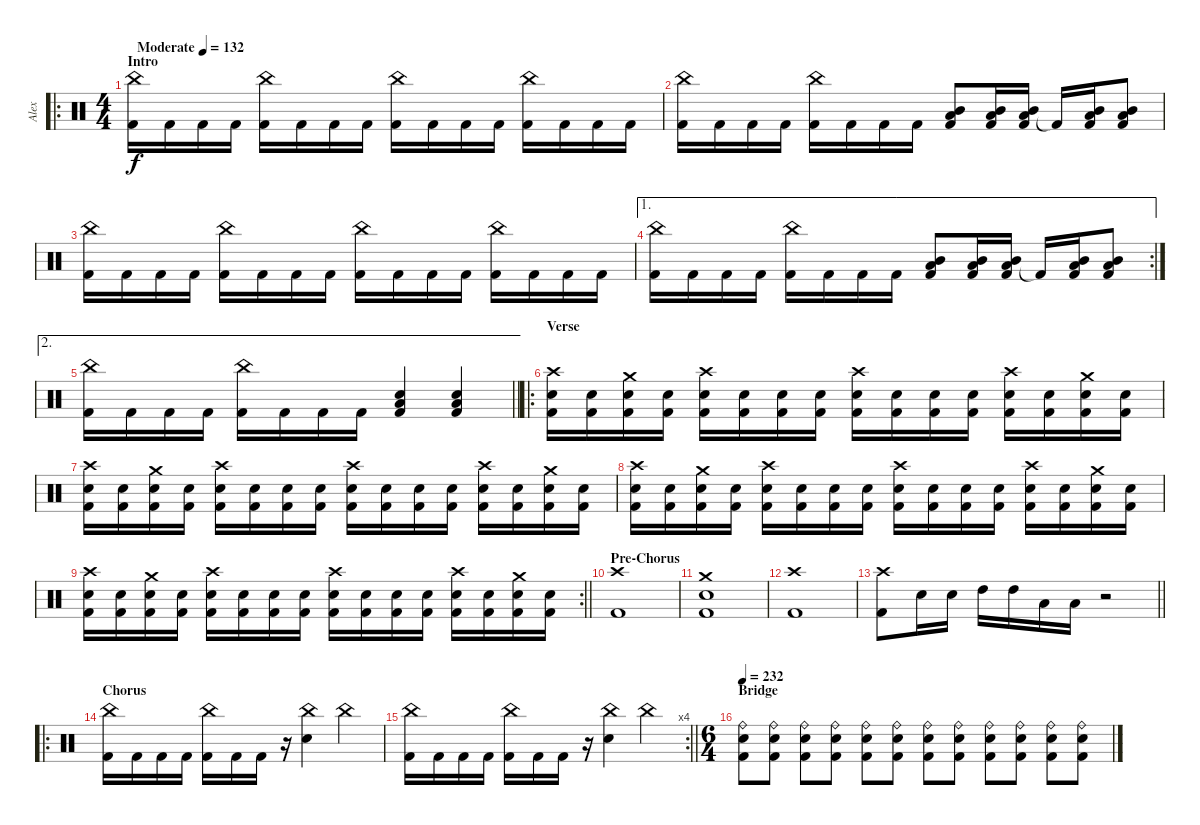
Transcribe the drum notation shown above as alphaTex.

\track ("Alex" "Alex") {instrument percussion}
\staff {score}
\articulation defaults
\ro
\ts (4 4)
\section ("" "Intro")
\tempo (132 "Moderate")
\clef neutral
\ks c
("China (hit)" "Kick (hit) 2").16{dy f} "Kick (hit) 2".16 "Kick (hit) 2".16 "Kick (hit) 2".16 ("China (hit)" "Kick (hit) 2").16 "Kick (hit) 2".16 "Kick (hit) 2".16 "Kick (hit) 2".16 ("China (hit)" "Kick (hit) 2").16 "Kick (hit) 2".16 "Kick (hit) 2".16 "Kick (hit) 2".16 ("China (hit)" "Kick (hit) 2").16 "Kick (hit) 2".16 "Kick (hit) 2".16 "Kick (hit) 2".16 |
("China (hit)" "Kick (hit) 2").16 "Kick (hit) 2".16 "Kick (hit) 2".16 "Kick (hit) 2".16 ("China (hit)" "Kick (hit) 2").16 "Kick (hit) 2".16 "Kick (hit) 2".16 "Kick (hit) 2".16 ("Mid Tom (hit)" "Low Floor Tom (hit)" "Kick (hit) 2").8 ("Mid Tom (hit)" "Low Floor Tom (hit)" "Kick (hit) 2").16 ("Mid Tom (hit)" "Low Floor Tom (hit)" "Kick (hit) 2").16 "Kick (hit) 2"{t}.16 ("Mid Tom (hit)" "Low Floor Tom (hit)" "Kick (hit) 2").16 ("Mid Tom (hit)" "Low Floor Tom (hit)" "Kick (hit) 2").8 |
("China (hit)" "Kick (hit) 2").16 "Kick (hit) 2".16 "Kick (hit) 2".16 "Kick (hit) 2".16 ("China (hit)" "Kick (hit) 2").16 "Kick (hit) 2".16 "Kick (hit) 2".16 "Kick (hit) 2".16 ("China (hit)" "Kick (hit) 2").16 "Kick (hit) 2".16 "Kick (hit) 2".16 "Kick (hit) 2".16 ("China (hit)" "Kick (hit) 2").16 "Kick (hit) 2".16 "Kick (hit) 2".16 "Kick (hit) 2".16 |
\ae 1
\rc 2
("China (hit)" "Kick (hit) 2").16 "Kick (hit) 2".16 "Kick (hit) 2".16 "Kick (hit) 2".16 ("China (hit)" "Kick (hit) 2").16 "Kick (hit) 2".16 "Kick (hit) 2".16 "Kick (hit) 2".16 ("Mid Tom (hit)" "Low Floor Tom (hit)" "Kick (hit) 2").8 ("Mid Tom (hit)" "Low Floor Tom (hit)" "Kick (hit) 2").16 ("Mid Tom (hit)" "Low Floor Tom (hit)" "Kick (hit) 2").16 "Kick (hit) 2"{t}.16 ("Mid Tom (hit)" "Low Floor Tom (hit)" "Kick (hit) 2").16 ("Mid Tom (hit)" "Low Floor Tom (hit)" "Kick (hit) 2").8 |
\ae 2
\barLineRight lightlight
("China (hit)" "Kick (hit) 2").16 "Kick (hit) 2".16 "Kick (hit) 2".16 "Kick (hit) 2".16 ("China (hit)" "Kick (hit) 2").16 "Kick (hit) 2".16 "Kick (hit) 2".16 "Kick (hit) 2".16 ("Electric Snare (hit)" "Low Floor Tom (hit)" "Kick (hit) 2").4 ("Electric Snare (hit)" "Low Floor Tom (hit)" "Kick (hit) 2").4 |
\ro
\section ("" "Verse")
("Crash high (hit)" "Electric Snare (hit)" "Kick (hit) 2").16 ("Electric Snare (hit)" "Kick (hit) 2").16 ("Crash medium (hit)" "Electric Snare (hit)" "Kick (hit) 2").16 ("Electric Snare (hit)" "Kick (hit) 2").16 ("Crash high (hit)" "Electric Snare (hit)" "Kick (hit) 2").16 ("Electric Snare (hit)" "Kick (hit) 2").16 ("Electric Snare (hit)" "Kick (hit) 2").16 ("Electric Snare (hit)" "Kick (hit) 2").16 ("Crash high (hit)" "Electric Snare (hit)" "Kick (hit) 2").16 ("Electric Snare (hit)" "Kick (hit) 2").16 ("Electric Snare (hit)" "Kick (hit) 2").16 ("Electric Snare (hit)" "Kick (hit) 2").16 ("Crash high (hit)" "Electric Snare (hit)" "Kick (hit) 2").16 ("Electric Snare (hit)" "Kick (hit) 2").16 ("Crash medium (hit)" "Electric Snare (hit)" "Kick (hit) 2").16 ("Electric Snare (hit)" "Kick (hit) 2").16 |
("Crash high (hit)" "Electric Snare (hit)" "Kick (hit) 2").16 ("Electric Snare (hit)" "Kick (hit) 2").16 ("Crash medium (hit)" "Electric Snare (hit)" "Kick (hit) 2").16 ("Electric Snare (hit)" "Kick (hit) 2").16 ("Crash high (hit)" "Electric Snare (hit)" "Kick (hit) 2").16 ("Electric Snare (hit)" "Kick (hit) 2").16 ("Electric Snare (hit)" "Kick (hit) 2").16 ("Electric Snare (hit)" "Kick (hit) 2").16 ("Crash high (hit)" "Electric Snare (hit)" "Kick (hit) 2").16 ("Electric Snare (hit)" "Kick (hit) 2").16 ("Electric Snare (hit)" "Kick (hit) 2").16 ("Electric Snare (hit)" "Kick (hit) 2").16 ("Crash high (hit)" "Electric Snare (hit)" "Kick (hit) 2").16 ("Electric Snare (hit)" "Kick (hit) 2").16 ("Crash medium (hit)" "Electric Snare (hit)" "Kick (hit) 2").16 ("Electric Snare (hit)" "Kick (hit) 2").16 |
("Crash high (hit)" "Electric Snare (hit)" "Kick (hit) 2").16 ("Electric Snare (hit)" "Kick (hit) 2").16 ("Crash medium (hit)" "Electric Snare (hit)" "Kick (hit) 2").16 ("Electric Snare (hit)" "Kick (hit) 2").16 ("Crash high (hit)" "Electric Snare (hit)" "Kick (hit) 2").16 ("Electric Snare (hit)" "Kick (hit) 2").16 ("Electric Snare (hit)" "Kick (hit) 2").16 ("Electric Snare (hit)" "Kick (hit) 2").16 ("Crash high (hit)" "Electric Snare (hit)" "Kick (hit) 2").16 ("Electric Snare (hit)" "Kick (hit) 2").16 ("Electric Snare (hit)" "Kick (hit) 2").16 ("Electric Snare (hit)" "Kick (hit) 2").16 ("Crash high (hit)" "Electric Snare (hit)" "Kick (hit) 2").16 ("Electric Snare (hit)" "Kick (hit) 2").16 ("Crash medium (hit)" "Electric Snare (hit)" "Kick (hit) 2").16 ("Electric Snare (hit)" "Kick (hit) 2").16 |
\rc 2
\barLineRight lightlight
("Crash high (hit)" "Electric Snare (hit)" "Kick (hit) 2").16 ("Electric Snare (hit)" "Kick (hit) 2").16 ("Crash medium (hit)" "Electric Snare (hit)" "Kick (hit) 2").16 ("Electric Snare (hit)" "Kick (hit) 2").16 ("Crash high (hit)" "Electric Snare (hit)" "Kick (hit) 2").16 ("Electric Snare (hit)" "Kick (hit) 2").16 ("Electric Snare (hit)" "Kick (hit) 2").16 ("Electric Snare (hit)" "Kick (hit) 2").16 ("Crash high (hit)" "Electric Snare (hit)" "Kick (hit) 2").16 ("Electric Snare (hit)" "Kick (hit) 2").16 ("Electric Snare (hit)" "Kick (hit) 2").16 ("Electric Snare (hit)" "Kick (hit) 2").16 ("Crash high (hit)" "Electric Snare (hit)" "Kick (hit) 2").16 ("Electric Snare (hit)" "Kick (hit) 2").16 ("Crash medium (hit)" "Electric Snare (hit)" "Kick (hit) 2").16 ("Electric Snare (hit)" "Kick (hit) 2").16 |
\section ("" "Pre-Chorus")
("Crash high (hit)" "Kick (hit) 2").1 |
("Crash medium (hit)" "Electric Snare (hit)" "Kick (hit) 2").1 |
("Crash high (hit)" "Kick (hit) 2").1 |
\barLineRight lightlight
("Crash high (hit)" "Kick (hit) 2").8 "Electric Snare (hit)".16 "Electric Snare (hit)".16 "High Tom (hit)".16 "High Tom (hit)".16 "Low Tom (hit)".16 "Low Tom (hit)".16 r.2 |
\ro
\section ("" "Chorus")
("China (hit)" "Kick (hit) 2").16 "Kick (hit) 2".16 "Kick (hit) 2".16 "Kick (hit) 2".16 ("China (hit)" "Kick (hit) 2").16 "Kick (hit) 2".16 "Kick (hit) 2".16 r.16 ("China (hit)" "Electric Snare (hit)").4 "China (hit)".4 |
\rc 4
\barLineRight lightlight
("China (hit)" "Kick (hit) 2").16 "Kick (hit) 2".16 "Kick (hit) 2".16 "Kick (hit) 2".16 ("China (hit)" "Kick (hit) 2").16 "Kick (hit) 2".16 "Kick (hit) 2".16 r.16 ("China (hit)" "Electric Snare (hit)").4 "China (hit)".4 |
\ts (6 4)
\section ("" "Bridge")
\tempo 232
("Ride (bell)" "Electric Snare (hit)" "Kick (hit) 2").8 ("Ride (bell)" "Electric Snare (hit)" "Kick (hit) 2").8 ("Ride (bell)" "Electric Snare (hit)" "Kick (hit) 2").8 ("Ride (bell)" "Electric Snare (hit)" "Kick (hit) 2").8 ("Ride (bell)" "Electric Snare (hit)" "Kick (hit) 2").8 ("Ride (bell)" "Electric Snare (hit)" "Kick (hit) 2").8 ("Ride (bell)" "Electric Snare (hit)" "Kick (hit) 2").8 ("Ride (bell)" "Electric Snare (hit)" "Kick (hit) 2").8 ("Ride (bell)" "Electric Snare (hit)" "Kick (hit) 2").8 ("Ride (bell)" "Electric Snare (hit)" "Kick (hit) 2").8 ("Ride (bell)" "Electric Snare (hit)" "Kick (hit) 2").8 ("Ride (bell)" "Electric Snare (hit)" "Kick (hit) 2").8
